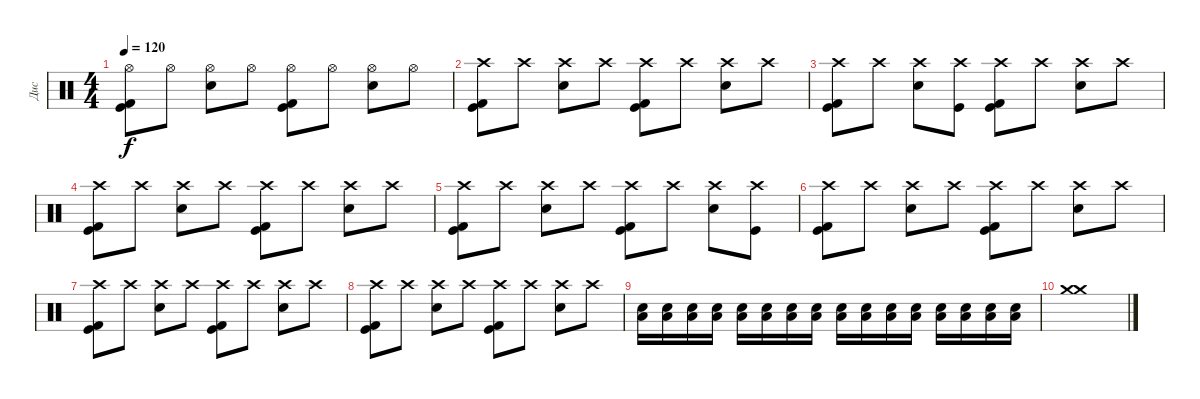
\track ("Дис" "Дис") {instrument percussion}
\staff {score}
\articulation defaults
\ts (4 4)
\tempo 120
\clef neutral
\ks c
("Hi-Hat (open)" "Kick (hit) 2" "Kick (hit)").8{dy f} "Hi-Hat (open)".8 ("Hi-Hat (open)" "Snare (hit) 2").8 "Hi-Hat (open)".8 ("Hi-Hat (open)" "Kick (hit) 2" "Kick (hit)").8 "Hi-Hat (open)".8 ("Hi-Hat (open)" "Snare (hit) 2").8 "Hi-Hat (open)".8 |
("Crash high (hit)" "Kick (hit) 2" "Kick (hit)").8 "Crash high (hit)".8 ("Crash high (hit)" "Snare (hit) 2").8 "Crash high (hit)".8 ("Crash high (hit)" "Kick (hit) 2" "Kick (hit)").8 "Crash high (hit)".8 ("Crash high (hit)" "Snare (hit) 2").8 "Crash high (hit)".8 |
("Crash high (hit)" "Kick (hit) 2" "Kick (hit)").8 "Crash high (hit)".8 ("Crash high (hit)" "Snare (hit) 2").8 ("Crash high (hit)" "Kick (hit)").8 ("Crash high (hit)" "Kick (hit) 2" "Kick (hit)").8 "Crash high (hit)".8 ("Crash high (hit)" "Snare (hit) 2").8 "Crash high (hit)".8 |
("Crash high (hit)" "Kick (hit) 2" "Kick (hit)").8 "Crash high (hit)".8 ("Crash high (hit)" "Snare (hit) 2").8 "Crash high (hit)".8 ("Crash high (hit)" "Kick (hit) 2" "Kick (hit)").8 "Crash high (hit)".8 ("Crash high (hit)" "Snare (hit) 2").8 "Crash high (hit)".8 |
("Crash high (hit)" "Kick (hit) 2" "Kick (hit)").8 "Crash high (hit)".8 ("Crash high (hit)" "Snare (hit) 2").8 "Crash high (hit)".8 ("Crash high (hit)" "Kick (hit) 2" "Kick (hit)").8 "Crash high (hit)".8 ("Crash high (hit)" "Snare (hit) 2").8 ("Crash high (hit)" "Kick (hit)").8 |
("Crash high (hit)" "Kick (hit) 2" "Kick (hit)").8 "Crash high (hit)".8 ("Crash high (hit)" "Snare (hit) 2").8 "Crash high (hit)".8 ("Crash high (hit)" "Kick (hit) 2" "Kick (hit)").8 "Crash high (hit)".8 ("Crash high (hit)" "Snare (hit) 2").8 "Crash high (hit)".8 |
("Crash high (hit)" "Kick (hit) 2" "Kick (hit)").8 "Crash high (hit)".8 ("Crash high (hit)" "Snare (hit) 2").8 "Crash high (hit)".8 ("Crash high (hit)" "Kick (hit) 2" "Kick (hit)").8 "Crash high (hit)".8 ("Crash high (hit)" "Snare (hit) 2").8 "Crash high (hit)".8 |
("Crash high (hit)" "Kick (hit) 2" "Kick (hit)").8 "Crash high (hit)".8 ("Crash high (hit)" "Snare (hit) 2").8 "Crash high (hit)".8 ("Crash high (hit)" "Kick (hit) 2" "Kick (hit)").8 "Crash high (hit)".8 ("Crash high (hit)" "Snare (hit) 2").8 "Crash high (hit)".8 |
("Low Tom (hit)" "Snare (hit) 2").16 ("Low Tom (hit)" "Snare (hit) 2").16 ("Low Tom (hit)" "Snare (hit) 2").16 ("Low Tom (hit)" "Snare (hit) 2").16 ("Low Tom (hit)" "Snare (hit) 2").16 ("Low Tom (hit)" "Snare (hit) 2").16 ("Low Tom (hit)" "Snare (hit) 2").16 ("Low Tom (hit)" "Snare (hit) 2").16 ("Low Tom (hit)" "Snare (hit) 2").16 ("Low Tom (hit)" "Snare (hit) 2").16 ("Low Tom (hit)" "Snare (hit) 2").16 ("Low Tom (hit)" "Snare (hit) 2").16 ("Low Tom (hit)" "Snare (hit) 2").16 ("Low Tom (hit)" "Snare (hit) 2").16 ("Low Tom (hit)" "Snare (hit) 2").16 ("Low Tom (hit)" "Snare (hit) 2").16 |
("Crash medium (hit)" "Crash medium (hit)").1
